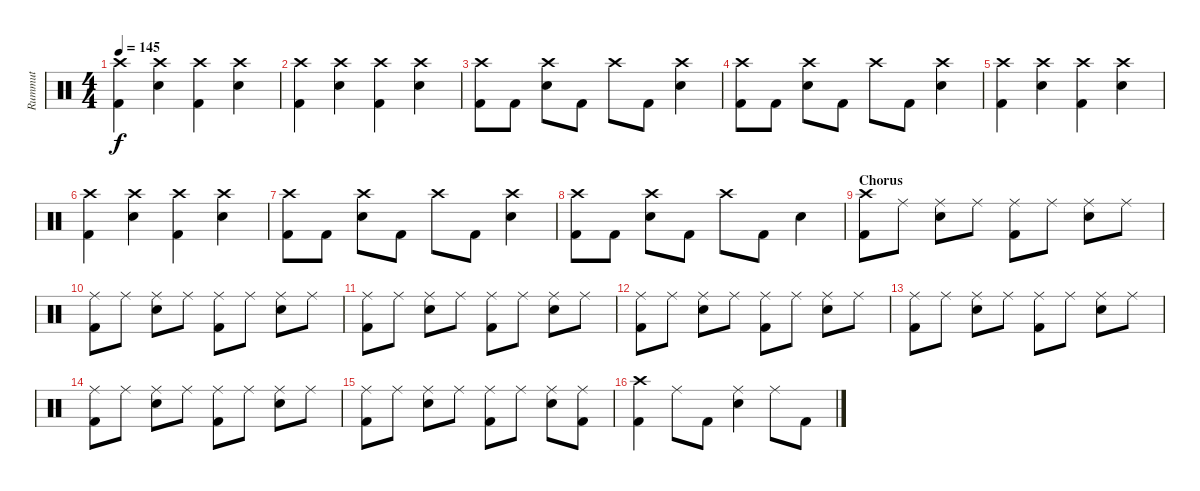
\track ("Rummut" "Rummut") {instrument percussion}
\staff {score}
\articulation defaults
\ts (4 4)
\tempo 145
\clef neutral
\ks c
("Crash high (hit)" "Kick (hit) 2").4{dy f} ("Crash high (hit)" "Snare (hit) 2").4 ("Crash high (hit)" "Kick (hit) 2").4 ("Crash high (hit)" "Snare (hit) 2").4 |
("Crash high (hit)" "Kick (hit) 2").4 ("Crash high (hit)" "Snare (hit) 2").4 ("Crash high (hit)" "Kick (hit) 2").4 ("Crash high (hit)" "Snare (hit) 2").4 |
("Crash high (hit)" "Kick (hit) 2").8 "Kick (hit) 2".8 ("Crash high (hit)" "Snare (hit) 2").8 "Kick (hit) 2".8 "Crash high (hit)".8 "Kick (hit) 2".8 ("Crash high (hit)" "Snare (hit) 2").4 |
("Crash high (hit)" "Kick (hit) 2").8 "Kick (hit) 2".8 ("Crash high (hit)" "Snare (hit) 2").8 "Kick (hit) 2".8 "Crash high (hit)".8 "Kick (hit) 2".8 ("Crash high (hit)" "Snare (hit) 2").4 |
("Crash high (hit)" "Kick (hit) 2").4 ("Crash high (hit)" "Snare (hit) 2").4 ("Crash high (hit)" "Kick (hit) 2").4 ("Crash high (hit)" "Snare (hit) 2").4 |
("Crash high (hit)" "Kick (hit) 2").4 ("Crash high (hit)" "Snare (hit) 2").4 ("Crash high (hit)" "Kick (hit) 2").4 ("Crash high (hit)" "Snare (hit) 2").4 |
("Crash high (hit)" "Kick (hit) 2").8 "Kick (hit) 2".8 ("Crash high (hit)" "Snare (hit) 2").8 "Kick (hit) 2".8 "Crash high (hit)".8 "Kick (hit) 2".8 ("Crash high (hit)" "Snare (hit) 2").4 |
("Crash high (hit)" "Kick (hit) 2").8 "Kick (hit) 2".8 ("Crash high (hit)" "Snare (hit) 2").8 "Kick (hit) 2".8 "Crash high (hit)".8 "Kick (hit) 2".8 "Snare (hit) 2".4 |
\section ("" "Chorus")
("Crash high (hit)" "Kick (hit) 2").8 "Ride (middle)".8 ("Ride (middle)" "Snare (hit) 2").8 "Ride (middle)".8 ("Ride (middle)" "Kick (hit) 2").8 "Ride (middle)".8 ("Ride (middle)" "Snare (hit) 2").8 "Ride (middle)".8 |
("Ride (middle)" "Kick (hit) 2").8 "Ride (middle)".8 ("Ride (middle)" "Snare (hit) 2").8 "Ride (middle)".8 ("Ride (middle)" "Kick (hit) 2").8 "Ride (middle)".8 ("Ride (middle)" "Snare (hit) 2").8 "Ride (middle)".8 |
("Ride (middle)" "Kick (hit) 2").8 "Ride (middle)".8 ("Ride (middle)" "Snare (hit) 2").8 "Ride (middle)".8 ("Ride (middle)" "Kick (hit) 2").8 "Ride (middle)".8 ("Ride (middle)" "Snare (hit) 2").8 "Ride (middle)".8 |
("Ride (middle)" "Kick (hit) 2").8 "Ride (middle)".8 ("Ride (middle)" "Snare (hit) 2").8 "Ride (middle)".8 ("Ride (middle)" "Kick (hit) 2").8 "Ride (middle)".8 ("Ride (middle)" "Snare (hit) 2").8 "Ride (middle)".8 |
("Ride (middle)" "Kick (hit) 2").8 "Ride (middle)".8 ("Ride (middle)" "Snare (hit) 2").8 "Ride (middle)".8 ("Ride (middle)" "Kick (hit) 2").8 "Ride (middle)".8 ("Ride (middle)" "Snare (hit) 2").8 "Ride (middle)".8 |
("Ride (middle)" "Kick (hit) 2").8 "Ride (middle)".8 ("Ride (middle)" "Snare (hit) 2").8 "Ride (middle)".8 ("Ride (middle)" "Kick (hit) 2").8 "Ride (middle)".8 ("Ride (middle)" "Snare (hit) 2").8 "Ride (middle)".8 |
("Ride (middle)" "Kick (hit) 2").8 "Ride (middle)".8 ("Ride (middle)" "Snare (hit) 2").8 "Ride (middle)".8 ("Ride (middle)" "Kick (hit) 2").8 "Ride (middle)".8 ("Ride (middle)" "Snare (hit) 2").8 ("Ride (middle)" "Kick (hit) 2").8 |
("Crash high (hit)" "Kick (hit) 2").4 "Ride (middle)".8 "Kick (hit) 2".8 ("Ride (middle)" "Snare (hit) 2").4 "Ride (middle)".8 "Kick (hit) 2".8
